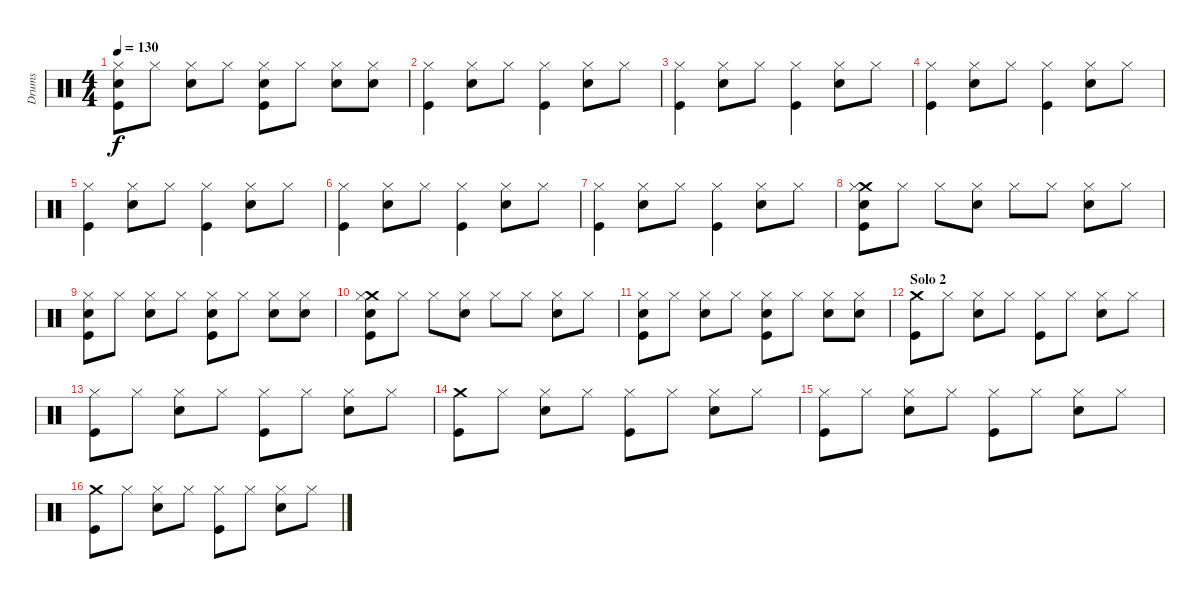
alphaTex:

\track ("Drums" "Drums") {instrument percussion}
\staff {score}
\articulation defaults
\ts (4 4)
\tempo 130
\clef neutral
\ks c
("Snare (hit) 2" "Hi-Hat (closed)" "Kick (hit)").8{dy f} "Hi-Hat (closed)".8 ("Snare (hit) 2" "Hi-Hat (closed)").8 "Hi-Hat (closed)".8 ("Snare (hit) 2" "Hi-Hat (closed)" "Kick (hit)").8 "Hi-Hat (closed)".8 ("Snare (hit) 2" "Hi-Hat (closed)").8 ("Snare (hit) 2" "Hi-Hat (closed)").8 |
("Hi-Hat (closed)" "Kick (hit)").4 ("Snare (hit) 2" "Hi-Hat (closed)").8 "Hi-Hat (closed)".8 ("Hi-Hat (closed)" "Kick (hit)").4 ("Snare (hit) 2" "Hi-Hat (closed)").8 "Hi-Hat (closed)".8 |
("Hi-Hat (closed)" "Kick (hit)").4 ("Snare (hit) 2" "Hi-Hat (closed)").8 "Hi-Hat (closed)".8 ("Hi-Hat (closed)" "Kick (hit)").4 ("Snare (hit) 2" "Hi-Hat (closed)").8 "Hi-Hat (closed)".8 |
("Hi-Hat (closed)" "Kick (hit)").4 ("Snare (hit) 2" "Hi-Hat (closed)").8 "Hi-Hat (closed)".8 ("Hi-Hat (closed)" "Kick (hit)").4 ("Snare (hit) 2" "Hi-Hat (closed)").8 "Hi-Hat (closed)".8 |
("Hi-Hat (closed)" "Kick (hit)").4 ("Snare (hit) 2" "Hi-Hat (closed)").8 "Hi-Hat (closed)".8 ("Hi-Hat (closed)" "Kick (hit)").4 ("Snare (hit) 2" "Hi-Hat (closed)").8 "Hi-Hat (closed)".8 |
("Hi-Hat (closed)" "Kick (hit)").4 ("Snare (hit) 2" "Hi-Hat (closed)").8 "Hi-Hat (closed)".8 ("Hi-Hat (closed)" "Kick (hit)").4 ("Snare (hit) 2" "Hi-Hat (closed)").8 "Hi-Hat (closed)".8 |
("Hi-Hat (closed)" "Kick (hit)").4 ("Snare (hit) 2" "Hi-Hat (closed)").8 "Hi-Hat (closed)".8 ("Hi-Hat (closed)" "Kick (hit)").4 ("Snare (hit) 2" "Hi-Hat (closed)").8 "Hi-Hat (closed)".8 |
("Crash medium (hit)" "Snare (hit) 2" "Hi-Hat (closed)" "Kick (hit)").8 "Hi-Hat (closed)".8 "Hi-Hat (closed)".8 ("Snare (hit) 2" "Hi-Hat (closed)").8 "Hi-Hat (closed)".8 "Hi-Hat (closed)".8 ("Snare (hit) 2" "Hi-Hat (closed)").8 "Hi-Hat (closed)".8 |
("Snare (hit) 2" "Hi-Hat (closed)" "Kick (hit)").8 "Hi-Hat (closed)".8 ("Snare (hit) 2" "Hi-Hat (closed)").8 "Hi-Hat (closed)".8 ("Snare (hit) 2" "Hi-Hat (closed)" "Kick (hit)").8 "Hi-Hat (closed)".8 ("Snare (hit) 2" "Hi-Hat (closed)").8 ("Snare (hit) 2" "Hi-Hat (closed)").8 |
("Crash medium (hit)" "Snare (hit) 2" "Hi-Hat (closed)" "Kick (hit)").8 "Hi-Hat (closed)".8 "Hi-Hat (closed)".8 ("Snare (hit) 2" "Hi-Hat (closed)").8 "Hi-Hat (closed)".8 "Hi-Hat (closed)".8 ("Snare (hit) 2" "Hi-Hat (closed)").8 "Hi-Hat (closed)".8 |
("Snare (hit) 2" "Hi-Hat (closed)" "Kick (hit)").8 "Hi-Hat (closed)".8 ("Snare (hit) 2" "Hi-Hat (closed)").8 "Hi-Hat (closed)".8 ("Snare (hit) 2" "Hi-Hat (closed)" "Kick (hit)").8 "Hi-Hat (closed)".8 ("Snare (hit) 2" "Hi-Hat (closed)").8 ("Snare (hit) 2" "Hi-Hat (closed)").8 |
\section ("" "Solo 2")
("Crash medium (hit)" "Kick (hit)").8 "Hi-Hat (closed)".8 ("Snare (hit) 2" "Hi-Hat (closed)").8 "Hi-Hat (closed)".8 ("Hi-Hat (closed)" "Kick (hit)").8 "Hi-Hat (closed)".8 ("Snare (hit) 2" "Hi-Hat (closed)").8 "Hi-Hat (closed)".8 |
("Hi-Hat (closed)" "Kick (hit)").8 "Hi-Hat (closed)".8 ("Snare (hit) 2" "Hi-Hat (closed)").8 "Hi-Hat (closed)".8 ("Hi-Hat (closed)" "Kick (hit)").8 "Hi-Hat (closed)".8 ("Snare (hit) 2" "Hi-Hat (closed)").8 "Hi-Hat (closed)".8 |
("Crash medium (hit)" "Kick (hit)").8 "Hi-Hat (closed)".8 ("Snare (hit) 2" "Hi-Hat (closed)").8 "Hi-Hat (closed)".8 ("Hi-Hat (closed)" "Kick (hit)").8 "Hi-Hat (closed)".8 ("Snare (hit) 2" "Hi-Hat (closed)").8 "Hi-Hat (closed)".8 |
("Hi-Hat (closed)" "Kick (hit)").8 "Hi-Hat (closed)".8 ("Snare (hit) 2" "Hi-Hat (closed)").8 "Hi-Hat (closed)".8 ("Hi-Hat (closed)" "Kick (hit)").8 "Hi-Hat (closed)".8 ("Snare (hit) 2" "Hi-Hat (closed)").8 "Hi-Hat (closed)".8 |
("Crash medium (hit)" "Kick (hit)").8 "Hi-Hat (closed)".8 ("Snare (hit) 2" "Hi-Hat (closed)").8 "Hi-Hat (closed)".8 ("Hi-Hat (closed)" "Kick (hit)").8 "Hi-Hat (closed)".8 ("Snare (hit) 2" "Hi-Hat (closed)").8 "Hi-Hat (closed)".8
